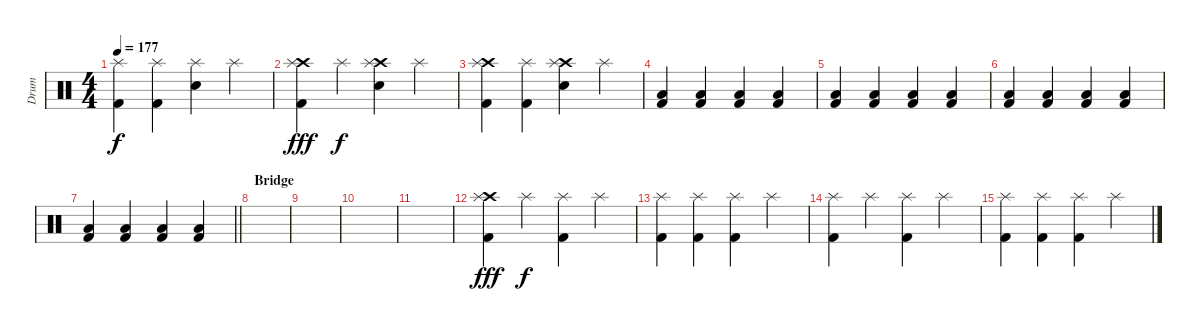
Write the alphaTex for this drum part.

\track ("Drum" "Drum") {instrument percussion}
\staff {score}
\articulation defaults
\ts (4 4)
\tempo 177
\clef neutral
\ks c
("Splash (hit)" "Kick (hit) 2").4{dy f} ("Splash (hit)" "Kick (hit) 2").4 ("Snare (hit) 2" "Splash (hit)").4 "Splash (hit)".4 |
("Crash high (hit)" "Splash (hit)" "Kick (hit) 2").4{dy fff} "Splash (hit)".4{dy f} ("Crash high (hit)" "Snare (hit) 2" "Splash (hit)").4 "Splash (hit)".4 |
("Crash high (hit)" "Splash (hit)" "Kick (hit) 2").4 ("Splash (hit)" "Kick (hit) 2").4 ("Crash high (hit)" "Snare (hit) 2" "Splash (hit)").4 "Splash (hit)".4 |
("Low Tom (hit)" "Kick (hit) 2").4 ("Low Tom (hit)" "Kick (hit) 2").4 ("Low Tom (hit)" "Kick (hit) 2").4 ("Low Tom (hit)" "Kick (hit) 2").4 |
("Low Tom (hit)" "Kick (hit) 2").4 ("Low Tom (hit)" "Kick (hit) 2").4 ("Low Tom (hit)" "Kick (hit) 2").4 ("Low Tom (hit)" "Kick (hit) 2").4 |
("Low Tom (hit)" "Kick (hit) 2").4 ("Low Tom (hit)" "Kick (hit) 2").4 ("Low Tom (hit)" "Kick (hit) 2").4 ("Low Tom (hit)" "Kick (hit) 2").4 |
\barLineRight lightlight
("Low Tom (hit)" "Kick (hit) 2").4 ("Low Tom (hit)" "Kick (hit) 2").4 ("Low Tom (hit)" "Kick (hit) 2").4 ("Low Tom (hit)" "Kick (hit) 2").4 |
\section ("" "Bridge")
|
|
|
|
("Crash high (hit)" "Splash (hit)" "Kick (hit) 2").4{dy fff} "Splash (hit)".4{dy f} ("Kick (hit) 2" "Splash (hit)").4 "Splash (hit)".4 |
("Splash (hit)" "Kick (hit) 2").4 ("Splash (hit)" "Kick (hit) 2").4 ("Kick (hit) 2" "Splash (hit)").4 "Splash (hit)".4 |
("Splash (hit)" "Kick (hit) 2").4 "Splash (hit)".4 ("Kick (hit) 2" "Splash (hit)").4 "Splash (hit)".4 |
("Splash (hit)" "Kick (hit) 2").4 ("Splash (hit)" "Kick (hit) 2").4 ("Kick (hit) 2" "Splash (hit)").4 "Splash (hit)".4
